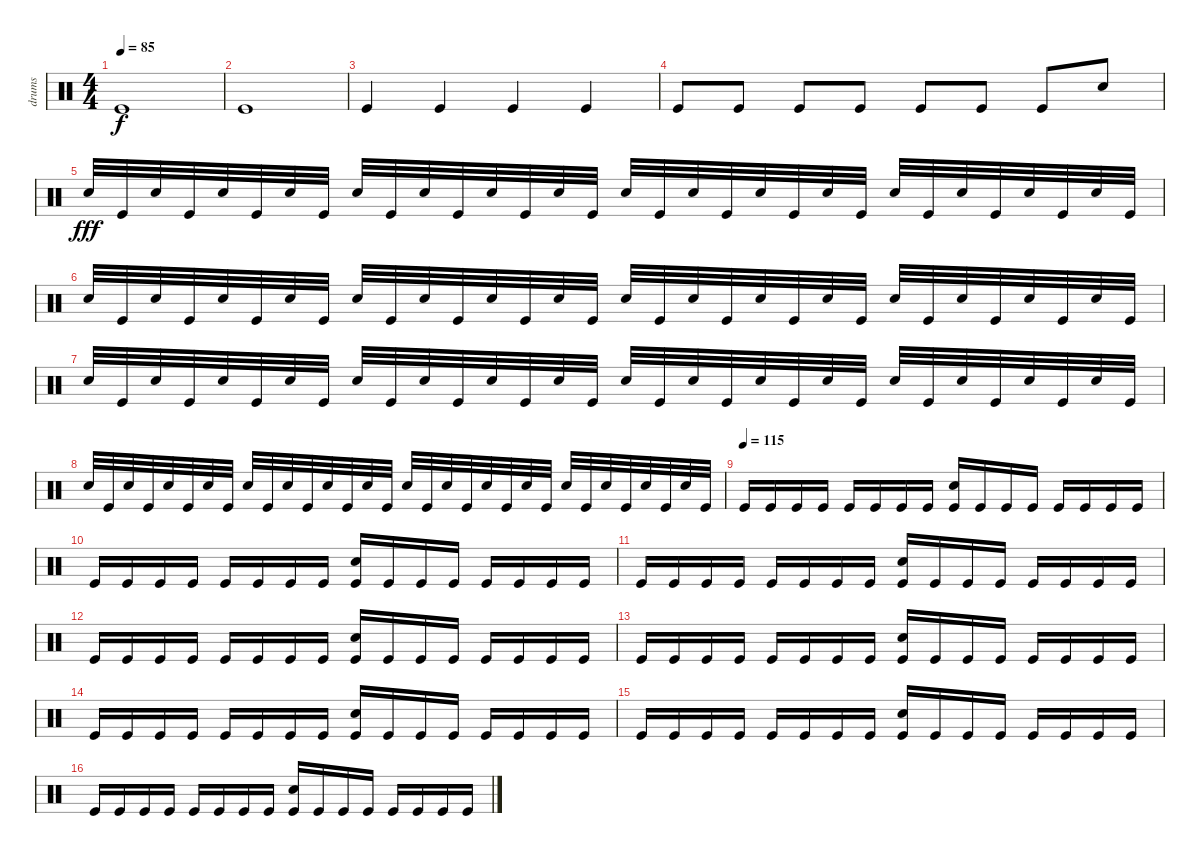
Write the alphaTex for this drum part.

\track ("drums" "drums") {instrument percussion}
\staff {score}
\articulation defaults
\ts (4 4)
\tempo 85
\clef neutral
\ks c "Kick (hit)".1{dy f}
|
"Kick (hit)".1 |
"Kick (hit)".4 "Kick (hit)".4 "Kick (hit)".4 "Kick (hit)".4 |
"Kick (hit)".8 "Kick (hit)".8 "Kick (hit)".8 "Kick (hit)".8 "Kick (hit)".8 "Kick (hit)".8 "Kick (hit)".8 "Electric Snare (hit)".8 |
"Electric Snare (hit)".32{dy fff} "Kick (hit)".32 "Electric Snare (hit)".32 "Kick (hit)".32 "Electric Snare (hit)".32 "Kick (hit)".32 "Electric Snare (hit)".32 "Kick (hit)".32 "Electric Snare (hit)".32 "Kick (hit)".32 "Electric Snare (hit)".32 "Kick (hit)".32 "Electric Snare (hit)".32 "Kick (hit)".32 "Electric Snare (hit)".32 "Kick (hit)".32 "Electric Snare (hit)".32 "Kick (hit)".32 "Electric Snare (hit)".32 "Kick (hit)".32 "Electric Snare (hit)".32 "Kick (hit)".32 "Electric Snare (hit)".32 "Kick (hit)".32 "Electric Snare (hit)".32 "Kick (hit)".32 "Electric Snare (hit)".32 "Kick (hit)".32 "Electric Snare (hit)".32 "Kick (hit)".32 "Electric Snare (hit)".32 "Kick (hit)".32 |
"Electric Snare (hit)".32 "Kick (hit)".32 "Electric Snare (hit)".32 "Kick (hit)".32 "Electric Snare (hit)".32 "Kick (hit)".32 "Electric Snare (hit)".32 "Kick (hit)".32 "Electric Snare (hit)".32 "Kick (hit)".32 "Electric Snare (hit)".32 "Kick (hit)".32 "Electric Snare (hit)".32 "Kick (hit)".32 "Electric Snare (hit)".32 "Kick (hit)".32 "Electric Snare (hit)".32 "Kick (hit)".32 "Electric Snare (hit)".32 "Kick (hit)".32 "Electric Snare (hit)".32 "Kick (hit)".32 "Electric Snare (hit)".32 "Kick (hit)".32 "Electric Snare (hit)".32 "Kick (hit)".32 "Electric Snare (hit)".32 "Kick (hit)".32 "Electric Snare (hit)".32 "Kick (hit)".32 "Electric Snare (hit)".32 "Kick (hit)".32 |
"Electric Snare (hit)".32 "Kick (hit)".32 "Electric Snare (hit)".32 "Kick (hit)".32 "Electric Snare (hit)".32 "Kick (hit)".32 "Electric Snare (hit)".32 "Kick (hit)".32 "Electric Snare (hit)".32 "Kick (hit)".32 "Electric Snare (hit)".32 "Kick (hit)".32 "Electric Snare (hit)".32 "Kick (hit)".32 "Electric Snare (hit)".32 "Kick (hit)".32 "Electric Snare (hit)".32 "Kick (hit)".32 "Electric Snare (hit)".32 "Kick (hit)".32 "Electric Snare (hit)".32 "Kick (hit)".32 "Electric Snare (hit)".32 "Kick (hit)".32 "Electric Snare (hit)".32 "Kick (hit)".32 "Electric Snare (hit)".32 "Kick (hit)".32 "Electric Snare (hit)".32 "Kick (hit)".32 "Electric Snare (hit)".32 "Kick (hit)".32 |
"Electric Snare (hit)".32 "Kick (hit)".32 "Electric Snare (hit)".32 "Kick (hit)".32 "Electric Snare (hit)".32 "Kick (hit)".32 "Electric Snare (hit)".32 "Kick (hit)".32 "Electric Snare (hit)".32 "Kick (hit)".32 "Electric Snare (hit)".32 "Kick (hit)".32 "Electric Snare (hit)".32 "Kick (hit)".32 "Electric Snare (hit)".32 "Kick (hit)".32 "Electric Snare (hit)".32 "Kick (hit)".32 "Electric Snare (hit)".32 "Kick (hit)".32 "Electric Snare (hit)".32 "Kick (hit)".32 "Electric Snare (hit)".32 "Kick (hit)".32 "Electric Snare (hit)".32 "Kick (hit)".32 "Electric Snare (hit)".32 "Kick (hit)".32 "Electric Snare (hit)".32 "Kick (hit)".32 "Electric Snare (hit)".32 "Kick (hit)".32 |
\tempo (115)
"Kick (hit)".16 "Kick (hit)".16 "Kick (hit)".16 "Kick (hit)".16 "Kick (hit)".16 "Kick (hit)".16 "Kick (hit)".16 "Kick (hit)".16 ("Electric Snare (hit)" "Kick (hit)").16 "Kick (hit)".16 "Kick (hit)".16 "Kick (hit)".16 "Kick (hit)".16 "Kick (hit)".16 "Kick (hit)".16 "Kick (hit)".16 |
"Kick (hit)".16 "Kick (hit)".16 "Kick (hit)".16 "Kick (hit)".16 "Kick (hit)".16 "Kick (hit)".16 "Kick (hit)".16 "Kick (hit)".16 ("Electric Snare (hit)" "Kick (hit)").16 "Kick (hit)".16 "Kick (hit)".16 "Kick (hit)".16 "Kick (hit)".16 "Kick (hit)".16 "Kick (hit)".16 "Kick (hit)".16 |
"Kick (hit)".16 "Kick (hit)".16 "Kick (hit)".16 "Kick (hit)".16 "Kick (hit)".16 "Kick (hit)".16 "Kick (hit)".16 "Kick (hit)".16 ("Electric Snare (hit)" "Kick (hit)").16 "Kick (hit)".16 "Kick (hit)".16 "Kick (hit)".16 "Kick (hit)".16 "Kick (hit)".16 "Kick (hit)".16 "Kick (hit)".16 |
"Kick (hit)".16 "Kick (hit)".16 "Kick (hit)".16 "Kick (hit)".16 "Kick (hit)".16 "Kick (hit)".16 "Kick (hit)".16 "Kick (hit)".16 ("Electric Snare (hit)" "Kick (hit)").16 "Kick (hit)".16 "Kick (hit)".16 "Kick (hit)".16 "Kick (hit)".16 "Kick (hit)".16 "Kick (hit)".16 "Kick (hit)".16 |
"Kick (hit)".16 "Kick (hit)".16 "Kick (hit)".16 "Kick (hit)".16 "Kick (hit)".16 "Kick (hit)".16 "Kick (hit)".16 "Kick (hit)".16 ("Electric Snare (hit)" "Kick (hit)").16 "Kick (hit)".16 "Kick (hit)".16 "Kick (hit)".16 "Kick (hit)".16 "Kick (hit)".16 "Kick (hit)".16 "Kick (hit)".16 |
"Kick (hit)".16 "Kick (hit)".16 "Kick (hit)".16 "Kick (hit)".16 "Kick (hit)".16 "Kick (hit)".16 "Kick (hit)".16 "Kick (hit)".16 ("Electric Snare (hit)" "Kick (hit)").16 "Kick (hit)".16 "Kick (hit)".16 "Kick (hit)".16 "Kick (hit)".16 "Kick (hit)".16 "Kick (hit)".16 "Kick (hit)".16 |
"Kick (hit)".16 "Kick (hit)".16 "Kick (hit)".16 "Kick (hit)".16 "Kick (hit)".16 "Kick (hit)".16 "Kick (hit)".16 "Kick (hit)".16 ("Electric Snare (hit)" "Kick (hit)").16 "Kick (hit)".16 "Kick (hit)".16 "Kick (hit)".16 "Kick (hit)".16 "Kick (hit)".16 "Kick (hit)".16 "Kick (hit)".16 |
"Kick (hit)".16 "Kick (hit)".16 "Kick (hit)".16 "Kick (hit)".16 "Kick (hit)".16 "Kick (hit)".16 "Kick (hit)".16 "Kick (hit)".16 ("Electric Snare (hit)" "Kick (hit)").16 "Kick (hit)".16 "Kick (hit)".16 "Kick (hit)".16 "Kick (hit)".16 "Kick (hit)".16 "Kick (hit)".16 "Kick (hit)".16
